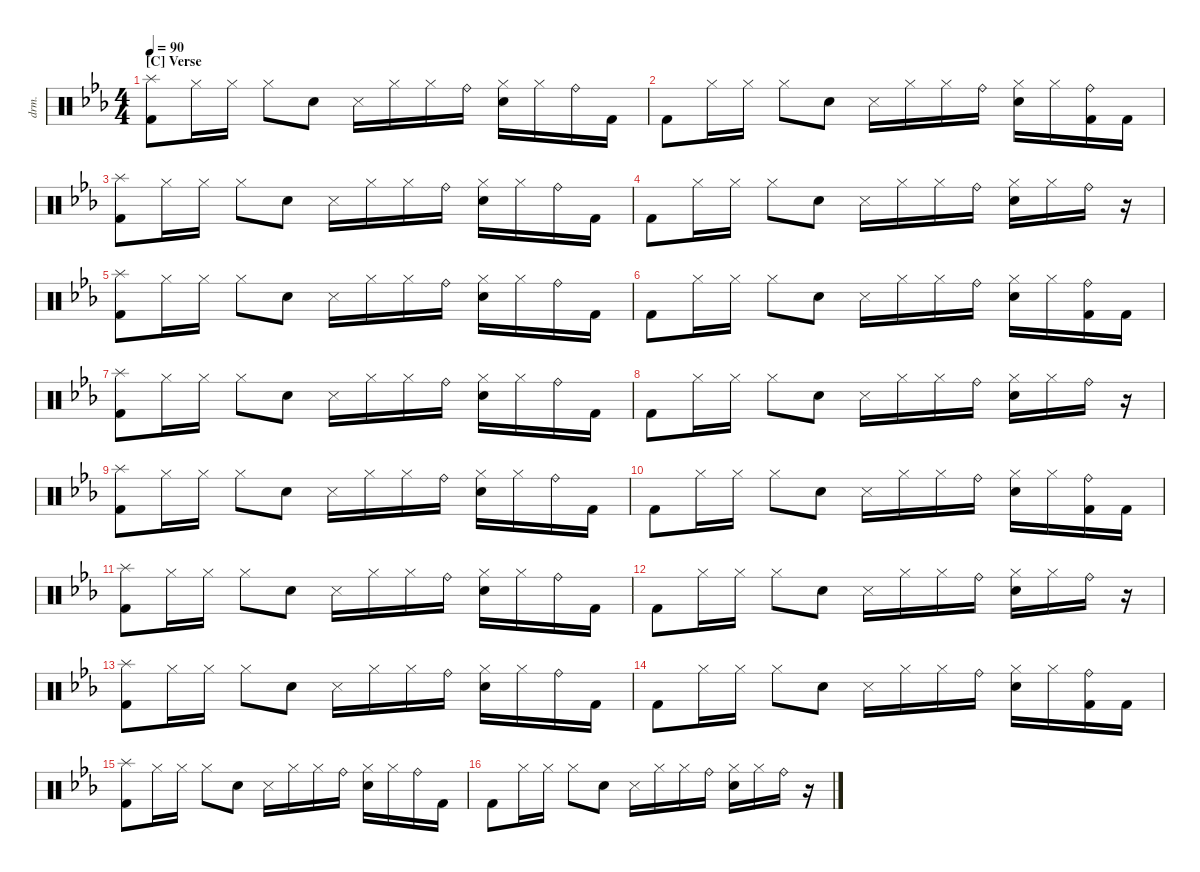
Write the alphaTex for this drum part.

\defaultSystemsLayout 4
\hideDynamics
\bracketExtendMode nobrackets
\otherSystemsTrackNameOrientation horizontal
\track ("Drumkit" "drm.") {instrument percussion}
\staff {score}
\articulation defaults
\ts (4 4)
\section ("C" "Verse")
\tempo 90
\clef neutral
\ks cminor
("Kick (hit) 2"{acc forcenatural} "Splash (hit)"{acc forcenatural}).8{dy mf beam Down} "Hi-Hat (closed)"{acc forcenatural}.16{beam Down} "Hi-Hat (closed)"{acc forcenatural}.16{beam Down} "Hi-Hat (closed)"{acc forcenatural}.8{beam Down} "Snare (hit) 2"{acc forcenatural}.8{beam Down} "Snare (side stick) 3"{acc forcenatural}.16{beam Down} "Hi-Hat (closed)"{acc forcenatural}.16{beam Down} "Hi-Hat (closed)"{acc forcenatural}.16{beam Down} "Ride (bell)"{acc forcenatural}.16{beam Down} ("Hi-Hat (closed)"{acc forcenatural} "Snare (hit) 2"{acc forcenatural}).16{beam Down} "Hi-Hat (closed)"{acc forcenatural}.16{beam Down} "Ride (bell)"{acc forcenatural}.16{beam Down} "Kick (hit) 2"{acc forcenatural}.16{beam Down} |
"Kick (hit) 2"{acc forcenatural}.8{beam Down} "Hi-Hat (closed)"{acc forcenatural}.16{beam Down} "Hi-Hat (closed)"{acc forcenatural}.16{beam Down} "Hi-Hat (closed)"{acc forcenatural}.8{beam Down} "Snare (hit) 2"{acc forcenatural}.8{beam Down} "Snare (side stick) 3"{acc forcenatural}.16{beam Down} "Hi-Hat (closed)"{acc forcenatural}.16{beam Down} "Hi-Hat (closed)"{acc forcenatural}.16{beam Down} "Ride (bell)"{acc forcenatural}.16{beam Down} ("Hi-Hat (closed)"{acc forcenatural} "Snare (hit) 2"{acc forcenatural}).16{beam Down} "Hi-Hat (closed)"{acc forcenatural}.16{beam Down} ("Ride (bell)"{acc forcenatural} "Kick (hit) 2"{acc forcenatural}).16{beam Down} "Kick (hit) 2"{acc forcenatural}.16{beam Down} |
("Kick (hit) 2"{acc forcenatural} "Splash (hit)"{acc forcenatural}).8{beam Down} "Hi-Hat (closed)"{acc forcenatural}.16{beam Down} "Hi-Hat (closed)"{acc forcenatural}.16{beam Down} "Hi-Hat (closed)"{acc forcenatural}.8{beam Down} "Snare (hit) 2"{acc forcenatural}.8{beam Down} "Snare (side stick) 3"{acc forcenatural}.16{beam Down} "Hi-Hat (closed)"{acc forcenatural}.16{beam Down} "Hi-Hat (closed)"{acc forcenatural}.16{beam Down} "Ride (bell)"{acc forcenatural}.16{beam Down} ("Hi-Hat (closed)"{acc forcenatural} "Snare (hit) 2"{acc forcenatural}).16{beam Down} "Hi-Hat (closed)"{acc forcenatural}.16{beam Down} "Ride (bell)"{acc forcenatural}.16{beam Down} "Kick (hit) 2"{acc forcenatural}.16{beam Down} |
"Kick (hit) 2"{acc forcenatural}.8{beam Down} "Hi-Hat (closed)"{acc forcenatural}.16{beam Down} "Hi-Hat (closed)"{acc forcenatural}.16{beam Down} "Hi-Hat (closed)"{acc forcenatural}.8{beam Down} "Snare (hit) 2"{acc forcenatural}.8{beam Down} "Snare (side stick) 3"{acc forcenatural}.16{beam Down} "Hi-Hat (closed)"{acc forcenatural}.16{beam Down} "Hi-Hat (closed)"{acc forcenatural}.16{beam Down} "Ride (bell)"{acc forcenatural}.16{beam Down} ("Hi-Hat (closed)"{acc forcenatural} "Snare (hit) 2"{acc forcenatural}).16{beam Down} "Hi-Hat (closed)"{acc forcenatural}.16{beam Down} "Ride (bell)"{acc forcenatural}.16{beam Down} r.16{beam Down} |
("Kick (hit) 2"{acc forcenatural} "Splash (hit)"{acc forcenatural}).8{beam Down} "Hi-Hat (closed)"{acc forcenatural}.16{beam Down} "Hi-Hat (closed)"{acc forcenatural}.16{beam Down} "Hi-Hat (closed)"{acc forcenatural}.8{beam Down} "Snare (hit) 2"{acc forcenatural}.8{beam Down} "Snare (side stick) 3"{acc forcenatural}.16{beam Down} "Hi-Hat (closed)"{acc forcenatural}.16{beam Down} "Hi-Hat (closed)"{acc forcenatural}.16{beam Down} "Ride (bell)"{acc forcenatural}.16{beam Down} ("Hi-Hat (closed)"{acc forcenatural} "Snare (hit) 2"{acc forcenatural}).16{beam Down} "Hi-Hat (closed)"{acc forcenatural}.16{beam Down} "Ride (bell)"{acc forcenatural}.16{beam Down} "Kick (hit) 2"{acc forcenatural}.16{beam Down} |
"Kick (hit) 2"{acc forcenatural}.8{beam Down} "Hi-Hat (closed)"{acc forcenatural}.16{beam Down} "Hi-Hat (closed)"{acc forcenatural}.16{beam Down} "Hi-Hat (closed)"{acc forcenatural}.8{beam Down} "Snare (hit) 2"{acc forcenatural}.8{beam Down} "Snare (side stick) 3"{acc forcenatural}.16{beam Down} "Hi-Hat (closed)"{acc forcenatural}.16{beam Down} "Hi-Hat (closed)"{acc forcenatural}.16{beam Down} "Ride (bell)"{acc forcenatural}.16{beam Down} ("Hi-Hat (closed)"{acc forcenatural} "Snare (hit) 2"{acc forcenatural}).16{beam Down} "Hi-Hat (closed)"{acc forcenatural}.16{beam Down} ("Ride (bell)"{acc forcenatural} "Kick (hit) 2"{acc forcenatural}).16{beam Down} "Kick (hit) 2"{acc forcenatural}.16{beam Down} |
("Kick (hit) 2"{acc forcenatural} "Splash (hit)"{acc forcenatural}).8{beam Down} "Hi-Hat (closed)"{acc forcenatural}.16{beam Down} "Hi-Hat (closed)"{acc forcenatural}.16{beam Down} "Hi-Hat (closed)"{acc forcenatural}.8{beam Down} "Snare (hit) 2"{acc forcenatural}.8{beam Down} "Snare (side stick) 3"{acc forcenatural}.16{beam Down} "Hi-Hat (closed)"{acc forcenatural}.16{beam Down} "Hi-Hat (closed)"{acc forcenatural}.16{beam Down} "Ride (bell)"{acc forcenatural}.16{beam Down} ("Hi-Hat (closed)"{acc forcenatural} "Snare (hit) 2"{acc forcenatural}).16{beam Down} "Hi-Hat (closed)"{acc forcenatural}.16{beam Down} "Ride (bell)"{acc forcenatural}.16{beam Down} "Kick (hit) 2"{acc forcenatural}.16{beam Down} |
"Kick (hit) 2"{acc forcenatural}.8{beam Down} "Hi-Hat (closed)"{acc forcenatural}.16{beam Down} "Hi-Hat (closed)"{acc forcenatural}.16{beam Down} "Hi-Hat (closed)"{acc forcenatural}.8{beam Down} "Snare (hit) 2"{acc forcenatural}.8{beam Down} "Snare (side stick) 3"{acc forcenatural}.16{beam Down} "Hi-Hat (closed)"{acc forcenatural}.16{beam Down} "Hi-Hat (closed)"{acc forcenatural}.16{beam Down} "Ride (bell)"{acc forcenatural}.16{beam Down} ("Hi-Hat (closed)"{acc forcenatural} "Snare (hit) 2"{acc forcenatural}).16{beam Down} "Hi-Hat (closed)"{acc forcenatural}.16{beam Down} "Ride (bell)"{acc forcenatural}.16{beam Down} r.16{beam Down} |
("Kick (hit) 2"{acc forcenatural} "Splash (hit)"{acc forcenatural}).8{beam Down} "Hi-Hat (closed)"{acc forcenatural}.16{beam Down} "Hi-Hat (closed)"{acc forcenatural}.16{beam Down} "Hi-Hat (closed)"{acc forcenatural}.8{beam Down} "Snare (hit) 2"{acc forcenatural}.8{beam Down} "Snare (side stick) 3"{acc forcenatural}.16{beam Down} "Hi-Hat (closed)"{acc forcenatural}.16{beam Down} "Hi-Hat (closed)"{acc forcenatural}.16{beam Down} "Ride (bell)"{acc forcenatural}.16{beam Down} ("Hi-Hat (closed)"{acc forcenatural} "Snare (hit) 2"{acc forcenatural}).16{beam Down} "Hi-Hat (closed)"{acc forcenatural}.16{beam Down} "Ride (bell)"{acc forcenatural}.16{beam Down} "Kick (hit) 2"{acc forcenatural}.16{beam Down} |
"Kick (hit) 2"{acc forcenatural}.8{beam Down} "Hi-Hat (closed)"{acc forcenatural}.16{beam Down} "Hi-Hat (closed)"{acc forcenatural}.16{beam Down} "Hi-Hat (closed)"{acc forcenatural}.8{beam Down} "Snare (hit) 2"{acc forcenatural}.8{beam Down} "Snare (side stick) 3"{acc forcenatural}.16{beam Down} "Hi-Hat (closed)"{acc forcenatural}.16{beam Down} "Hi-Hat (closed)"{acc forcenatural}.16{beam Down} "Ride (bell)"{acc forcenatural}.16{beam Down} ("Hi-Hat (closed)"{acc forcenatural} "Snare (hit) 2"{acc forcenatural}).16{beam Down} "Hi-Hat (closed)"{acc forcenatural}.16{beam Down} ("Ride (bell)"{acc forcenatural} "Kick (hit) 2"{acc forcenatural}).16{beam Down} "Kick (hit) 2"{acc forcenatural}.16{beam Down} |
("Kick (hit) 2"{acc forcenatural} "Splash (hit)"{acc forcenatural}).8{beam Down} "Hi-Hat (closed)"{acc forcenatural}.16{beam Down} "Hi-Hat (closed)"{acc forcenatural}.16{beam Down} "Hi-Hat (closed)"{acc forcenatural}.8{beam Down} "Snare (hit) 2"{acc forcenatural}.8{beam Down} "Snare (side stick) 3"{acc forcenatural}.16{beam Down} "Hi-Hat (closed)"{acc forcenatural}.16{beam Down} "Hi-Hat (closed)"{acc forcenatural}.16{beam Down} "Ride (bell)"{acc forcenatural}.16{beam Down} ("Hi-Hat (closed)"{acc forcenatural} "Snare (hit) 2"{acc forcenatural}).16{beam Down} "Hi-Hat (closed)"{acc forcenatural}.16{beam Down} "Ride (bell)"{acc forcenatural}.16{beam Down} "Kick (hit) 2"{acc forcenatural}.16{beam Down} |
"Kick (hit) 2"{acc forcenatural}.8{beam Down} "Hi-Hat (closed)"{acc forcenatural}.16{beam Down} "Hi-Hat (closed)"{acc forcenatural}.16{beam Down} "Hi-Hat (closed)"{acc forcenatural}.8{beam Down} "Snare (hit) 2"{acc forcenatural}.8{beam Down} "Snare (side stick) 3"{acc forcenatural}.16{beam Down} "Hi-Hat (closed)"{acc forcenatural}.16{beam Down} "Hi-Hat (closed)"{acc forcenatural}.16{beam Down} "Ride (bell)"{acc forcenatural}.16{beam Down} ("Hi-Hat (closed)"{acc forcenatural} "Snare (hit) 2"{acc forcenatural}).16{beam Down} "Hi-Hat (closed)"{acc forcenatural}.16{beam Down} "Ride (bell)"{acc forcenatural}.16{beam Down} r.16{beam Down} |
("Kick (hit) 2"{acc forcenatural} "Splash (hit)"{acc forcenatural}).8{beam Down} "Hi-Hat (closed)"{acc forcenatural}.16{beam Down} "Hi-Hat (closed)"{acc forcenatural}.16{beam Down} "Hi-Hat (closed)"{acc forcenatural}.8{beam Down} "Snare (hit) 2"{acc forcenatural}.8{beam Down} "Snare (side stick) 3"{acc forcenatural}.16{beam Down} "Hi-Hat (closed)"{acc forcenatural}.16{beam Down} "Hi-Hat (closed)"{acc forcenatural}.16{beam Down} "Ride (bell)"{acc forcenatural}.16{beam Down} ("Hi-Hat (closed)"{acc forcenatural} "Snare (hit) 2"{acc forcenatural}).16{beam Down} "Hi-Hat (closed)"{acc forcenatural}.16{beam Down} "Ride (bell)"{acc forcenatural}.16{beam Down} "Kick (hit) 2"{acc forcenatural}.16{beam Down} |
"Kick (hit) 2"{acc forcenatural}.8{beam Down} "Hi-Hat (closed)"{acc forcenatural}.16{beam Down} "Hi-Hat (closed)"{acc forcenatural}.16{beam Down} "Hi-Hat (closed)"{acc forcenatural}.8{beam Down} "Snare (hit) 2"{acc forcenatural}.8{beam Down} "Snare (side stick) 3"{acc forcenatural}.16{beam Down} "Hi-Hat (closed)"{acc forcenatural}.16{beam Down} "Hi-Hat (closed)"{acc forcenatural}.16{beam Down} "Ride (bell)"{acc forcenatural}.16{beam Down} ("Hi-Hat (closed)"{acc forcenatural} "Snare (hit) 2"{acc forcenatural}).16{beam Down} "Hi-Hat (closed)"{acc forcenatural}.16{beam Down} ("Ride (bell)"{acc forcenatural} "Kick (hit) 2"{acc forcenatural}).16{beam Down} "Kick (hit) 2"{acc forcenatural}.16{beam Down} |
("Kick (hit) 2"{acc forcenatural} "Splash (hit)"{acc forcenatural}).8{beam Down} "Hi-Hat (closed)"{acc forcenatural}.16{beam Down} "Hi-Hat (closed)"{acc forcenatural}.16{beam Down} "Hi-Hat (closed)"{acc forcenatural}.8{beam Down} "Snare (hit) 2"{acc forcenatural}.8{beam Down} "Snare (side stick) 3"{acc forcenatural}.16{beam Down} "Hi-Hat (closed)"{acc forcenatural}.16{beam Down} "Hi-Hat (closed)"{acc forcenatural}.16{beam Down} "Ride (bell)"{acc forcenatural}.16{beam Down} ("Hi-Hat (closed)"{acc forcenatural} "Snare (hit) 2"{acc forcenatural}).16{beam Down} "Hi-Hat (closed)"{acc forcenatural}.16{beam Down} "Ride (bell)"{acc forcenatural}.16{beam Down} "Kick (hit) 2"{acc forcenatural}.16{beam Down} |
"Kick (hit) 2"{acc forcenatural}.8{beam Down} "Hi-Hat (closed)"{acc forcenatural}.16{beam Down} "Hi-Hat (closed)"{acc forcenatural}.16{beam Down} "Hi-Hat (closed)"{acc forcenatural}.8{beam Down} "Snare (hit) 2"{acc forcenatural}.8{beam Down} "Snare (side stick) 3"{acc forcenatural}.16{beam Down} "Hi-Hat (closed)"{acc forcenatural}.16{beam Down} "Hi-Hat (closed)"{acc forcenatural}.16{beam Down} "Ride (bell)"{acc forcenatural}.16{beam Down} ("Hi-Hat (closed)"{acc forcenatural} "Snare (hit) 2"{acc forcenatural}).16{beam Down} "Hi-Hat (closed)"{acc forcenatural}.16{beam Down} "Ride (bell)"{acc forcenatural}.16{beam Down} r.16{beam Down}
